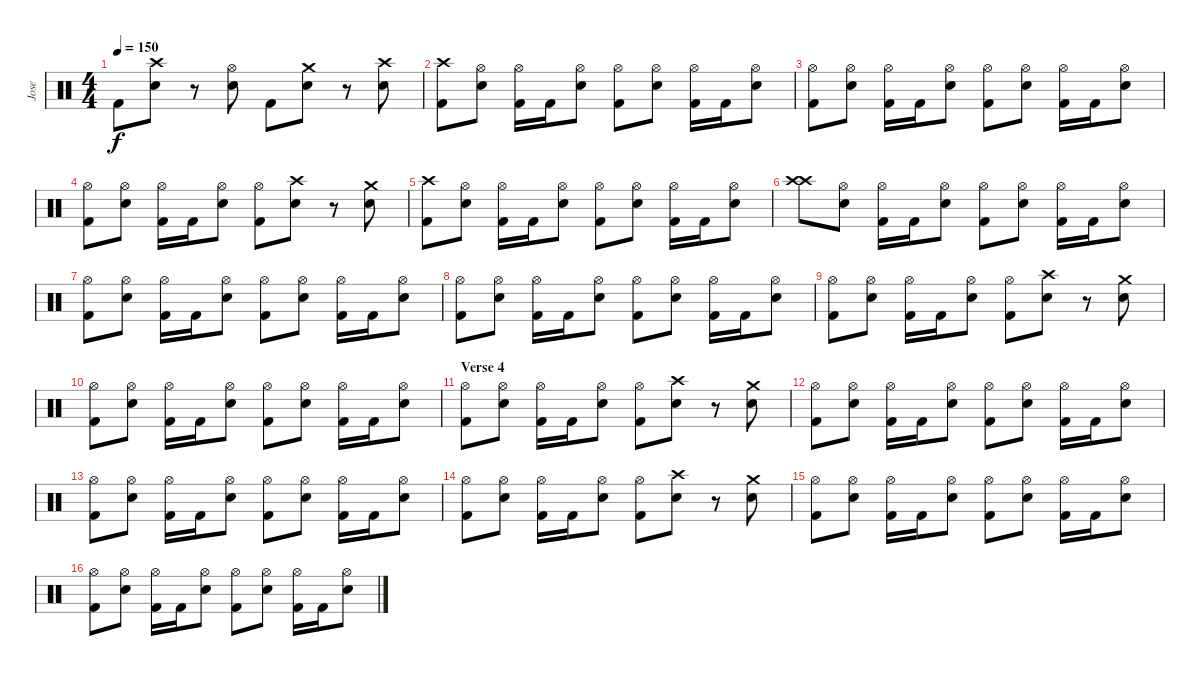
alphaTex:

\track ("Jose" "Jose") {instrument percussion}
\staff {score}
\articulation defaults
\ts (4 4)
\tempo 150
\clef neutral
\ks c "Kick (hit) 2".8{dy f}
("Crash high (hit)" "Snare (hit) 2").8 r.8 ("Hi-Hat (open)" "Snare (hit) 2").8 "Kick (hit) 2".8 ("Crash medium (hit)" "Snare (hit) 2").8 r.8 ("Crash high (hit)" "Snare (hit) 2").8 |
("Crash high (hit)" "Kick (hit) 2").8 ("Hi-Hat (open)" "Snare (hit) 2").8 ("Hi-Hat (open)" "Kick (hit) 2").16 "Kick (hit) 2".16 ("Hi-Hat (open)" "Snare (hit) 2").8 ("Hi-Hat (open)" "Kick (hit) 2").8 ("Hi-Hat (open)" "Snare (hit) 2").8 ("Hi-Hat (open)" "Kick (hit) 2").16 "Kick (hit) 2".16 ("Hi-Hat (open)" "Snare (hit) 2").8 |
("Hi-Hat (open)" "Kick (hit) 2").8 ("Hi-Hat (open)" "Snare (hit) 2").8 ("Hi-Hat (open)" "Kick (hit) 2").16 "Kick (hit) 2".16 ("Hi-Hat (open)" "Snare (hit) 2").8 ("Hi-Hat (open)" "Kick (hit) 2").8 ("Hi-Hat (open)" "Snare (hit) 2").8 ("Hi-Hat (open)" "Kick (hit) 2").16 "Kick (hit) 2".16 ("Hi-Hat (open)" "Snare (hit) 2").8 |
("Hi-Hat (open)" "Kick (hit) 2").8 ("Hi-Hat (open)" "Snare (hit) 2").8 ("Hi-Hat (open)" "Kick (hit) 2").16 "Kick (hit) 2".16 ("Hi-Hat (open)" "Snare (hit) 2").8 ("Hi-Hat (open)" "Kick (hit) 2").8 ("Crash high (hit)" "Snare (hit) 2").8 r.8 ("Crash medium (hit)" "Snare (hit) 2").8 |
("Crash high (hit)" "Kick (hit) 2").8 ("Hi-Hat (open)" "Snare (hit) 2").8 ("Hi-Hat (open)" "Kick (hit) 2").16 "Kick (hit) 2".16 ("Hi-Hat (open)" "Snare (hit) 2").8 ("Hi-Hat (open)" "Kick (hit) 2").8 ("Hi-Hat (open)" "Snare (hit) 2").8 ("Hi-Hat (open)" "Kick (hit) 2").16 "Kick (hit) 2".16 ("Hi-Hat (open)" "Snare (hit) 2").8 |
("Crash high (hit)" "Crash high (hit)").8 ("Hi-Hat (open)" "Snare (hit) 2").8 ("Hi-Hat (open)" "Kick (hit) 2").16 "Kick (hit) 2".16 ("Hi-Hat (open)" "Snare (hit) 2").8 ("Hi-Hat (open)" "Kick (hit) 2").8 ("Hi-Hat (open)" "Snare (hit) 2").8 ("Hi-Hat (open)" "Kick (hit) 2").16 "Kick (hit) 2".16 ("Hi-Hat (open)" "Snare (hit) 2").8 |
("Hi-Hat (open)" "Kick (hit) 2").8 ("Hi-Hat (open)" "Snare (hit) 2").8 ("Hi-Hat (open)" "Kick (hit) 2").16 "Kick (hit) 2".16 ("Hi-Hat (open)" "Snare (hit) 2").8 ("Hi-Hat (open)" "Kick (hit) 2").8 ("Hi-Hat (open)" "Snare (hit) 2").8 ("Hi-Hat (open)" "Kick (hit) 2").16 "Kick (hit) 2".16 ("Hi-Hat (open)" "Snare (hit) 2").8 |
("Hi-Hat (open)" "Kick (hit) 2").8 ("Hi-Hat (open)" "Snare (hit) 2").8 ("Hi-Hat (open)" "Kick (hit) 2").16 "Kick (hit) 2".16 ("Hi-Hat (open)" "Snare (hit) 2").8 ("Hi-Hat (open)" "Kick (hit) 2").8 ("Hi-Hat (open)" "Snare (hit) 2").8 ("Hi-Hat (open)" "Kick (hit) 2").16 "Kick (hit) 2".16 ("Hi-Hat (open)" "Snare (hit) 2").8 |
("Hi-Hat (open)" "Kick (hit) 2").8 ("Hi-Hat (open)" "Snare (hit) 2").8 ("Hi-Hat (open)" "Kick (hit) 2").16 "Kick (hit) 2".16 ("Hi-Hat (open)" "Snare (hit) 2").8 ("Hi-Hat (open)" "Kick (hit) 2").8 ("Crash high (hit)" "Snare (hit) 2").8 r.8 ("Crash medium (hit)" "Snare (hit) 2").8 |
("Hi-Hat (open)" "Kick (hit) 2").8 ("Hi-Hat (open)" "Snare (hit) 2").8 ("Hi-Hat (open)" "Kick (hit) 2").16 "Kick (hit) 2".16 ("Hi-Hat (open)" "Snare (hit) 2").8 ("Hi-Hat (open)" "Kick (hit) 2").8 ("Hi-Hat (open)" "Snare (hit) 2").8 ("Hi-Hat (open)" "Kick (hit) 2").16 "Kick (hit) 2".16 ("Hi-Hat (open)" "Snare (hit) 2").8 |
\section ("" "Verse 4")
("Hi-Hat (open)" "Kick (hit) 2").8 ("Hi-Hat (open)" "Snare (hit) 2").8 ("Hi-Hat (open)" "Kick (hit) 2").16 "Kick (hit) 2".16 ("Hi-Hat (open)" "Snare (hit) 2").8 ("Hi-Hat (open)" "Kick (hit) 2").8 ("Crash high (hit)" "Snare (hit) 2").8 r.8 ("Crash medium (hit)" "Snare (hit) 2").8 |
("Hi-Hat (open)" "Kick (hit) 2").8 ("Hi-Hat (open)" "Snare (hit) 2").8 ("Hi-Hat (open)" "Kick (hit) 2").16 "Kick (hit) 2".16 ("Hi-Hat (open)" "Snare (hit) 2").8 ("Hi-Hat (open)" "Kick (hit) 2").8 ("Hi-Hat (open)" "Snare (hit) 2").8 ("Hi-Hat (open)" "Kick (hit) 2").16 "Kick (hit) 2".16 ("Hi-Hat (open)" "Snare (hit) 2").8 |
("Hi-Hat (open)" "Kick (hit) 2").8 ("Hi-Hat (open)" "Snare (hit) 2").8 ("Hi-Hat (open)" "Kick (hit) 2").16 "Kick (hit) 2".16 ("Hi-Hat (open)" "Snare (hit) 2").8 ("Hi-Hat (open)" "Kick (hit) 2").8 ("Hi-Hat (open)" "Snare (hit) 2").8 ("Hi-Hat (open)" "Kick (hit) 2").16 "Kick (hit) 2".16 ("Hi-Hat (open)" "Snare (hit) 2").8 |
("Hi-Hat (open)" "Kick (hit) 2").8 ("Hi-Hat (open)" "Snare (hit) 2").8 ("Hi-Hat (open)" "Kick (hit) 2").16 "Kick (hit) 2".16 ("Hi-Hat (open)" "Snare (hit) 2").8 ("Hi-Hat (open)" "Kick (hit) 2").8 ("Crash high (hit)" "Snare (hit) 2").8 r.8 ("Crash medium (hit)" "Snare (hit) 2").8 |
("Hi-Hat (open)" "Kick (hit) 2").8 ("Hi-Hat (open)" "Snare (hit) 2").8 ("Hi-Hat (open)" "Kick (hit) 2").16 "Kick (hit) 2".16 ("Hi-Hat (open)" "Snare (hit) 2").8 ("Hi-Hat (open)" "Kick (hit) 2").8 ("Hi-Hat (open)" "Snare (hit) 2").8 ("Hi-Hat (open)" "Kick (hit) 2").16 "Kick (hit) 2".16 ("Hi-Hat (open)" "Snare (hit) 2").8 |
("Hi-Hat (open)" "Kick (hit) 2").8 ("Hi-Hat (open)" "Snare (hit) 2").8 ("Hi-Hat (open)" "Kick (hit) 2").16 "Kick (hit) 2".16 ("Hi-Hat (open)" "Snare (hit) 2").8 ("Hi-Hat (open)" "Kick (hit) 2").8 ("Hi-Hat (open)" "Snare (hit) 2").8 ("Hi-Hat (open)" "Kick (hit) 2").16 "Kick (hit) 2".16 ("Hi-Hat (open)" "Snare (hit) 2").8
